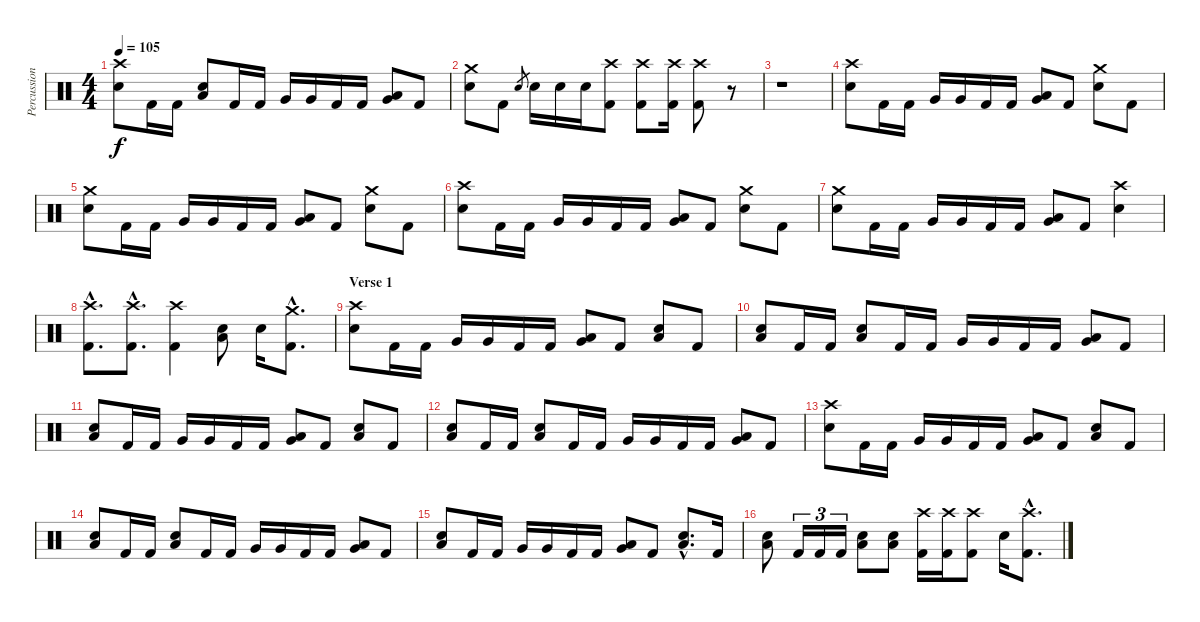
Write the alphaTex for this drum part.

\track ("Percussion" "Percussion") {instrument percussion}
\staff {score}
\articulation defaults
\ts (4 4)
\tempo 105
\clef neutral
\ks c
("Crash high (hit)" "Snare (hit) 2").8{dy f} "Kick (hit) 2".16 "Kick (hit) 2".16 ("Low Floor Tom (hit)" "Snare (hit) 2").8 "Kick (hit) 2".16 "Kick (hit) 2".16 "Very Low Tom (hit)".16 "Very Low Tom (hit)".16 "Kick (hit) 2".16 "Kick (hit) 2".16 ("Very Low Tom (hit)" "Low Floor Tom (hit)").8 "Kick (hit) 2".8 |
("Crash medium (hit)" "Snare (hit) 2").8 "Kick (hit) 2".8 "Snare (hit) 2".8{gr} "Snare (hit) 2".16 "Snare (hit) 2".16 "Snare (hit) 2".16 ("Crash high (hit)" "Kick (hit) 2").8 ("Crash high (hit)" "Kick (hit) 2").8 ("Crash high (hit)" "Kick (hit) 2").16 ("Crash high (hit)" "Kick (hit) 2").8 r.8 |
r.1 |
("Crash high (hit)" "Snare (hit) 2").8 "Kick (hit) 2".16 "Kick (hit) 2".16 "Very Low Tom (hit)".16 "Very Low Tom (hit)".16 "Kick (hit) 2".16 "Kick (hit) 2".16 ("Very Low Tom (hit)" "Low Floor Tom (hit)").8 "Kick (hit) 2".8 ("Crash medium (hit)" "Snare (hit) 2").8 "Kick (hit) 2".8 |
("Crash medium (hit)" "Snare (hit) 2").8 "Kick (hit) 2".16 "Kick (hit) 2".16 "Very Low Tom (hit)".16 "Very Low Tom (hit)".16 "Kick (hit) 2".16 "Kick (hit) 2".16 ("Very Low Tom (hit)" "Low Floor Tom (hit)").8 "Kick (hit) 2".8 ("Crash medium (hit)" "Snare (hit) 2").8 "Kick (hit) 2".8 |
("Crash high (hit)" "Snare (hit) 2").8 "Kick (hit) 2".16 "Kick (hit) 2".16 "Very Low Tom (hit)".16 "Very Low Tom (hit)".16 "Kick (hit) 2".16 "Kick (hit) 2".16 ("Very Low Tom (hit)" "Low Floor Tom (hit)").8 "Kick (hit) 2".8 ("Crash medium (hit)" "Snare (hit) 2").8 "Kick (hit) 2".8 |
("Crash medium (hit)" "Snare (hit) 2").8 "Kick (hit) 2".16 "Kick (hit) 2".16 "Very Low Tom (hit)".16 "Very Low Tom (hit)".16 "Kick (hit) 2".16 "Kick (hit) 2".16 ("Very Low Tom (hit)" "Low Floor Tom (hit)").8 "Kick (hit) 2".8 ("Crash high (hit)" "Snare (hit) 2").4 |
("Crash high (hit)"{hac} "Kick (hit) 2"{hac}).8{d} ("Crash high (hit)"{hac} "Kick (hit) 2"{hac}).8{d} ("Crash high (hit)" "Kick (hit) 2").4 ("Low Floor Tom (hit)" "Snare (hit) 2").8 "Snare (hit) 2".16 ("Crash medium (hit)"{hac} "Kick (hit) 2"{hac}).8{d} |
\section ("" "Verse 1")
("Crash high (hit)" "Snare (hit) 2").8 "Kick (hit) 2".16 "Kick (hit) 2".16 "Very Low Tom (hit)".16 "Very Low Tom (hit)".16 "Kick (hit) 2".16 "Kick (hit) 2".16 ("Very Low Tom (hit)" "Low Floor Tom (hit)").8 "Kick (hit) 2".8 ("Low Floor Tom (hit)" "Snare (hit) 2").8 "Kick (hit) 2".8 |
("Low Floor Tom (hit)" "Snare (hit) 2").8 "Kick (hit) 2".16 "Kick (hit) 2".16 ("Low Floor Tom (hit)" "Snare (hit) 2").8 "Kick (hit) 2".16 "Kick (hit) 2".16 "Very Low Tom (hit)".16 "Very Low Tom (hit)".16 "Kick (hit) 2".16 "Kick (hit) 2".16 ("Very Low Tom (hit)" "Low Floor Tom (hit)").8 "Kick (hit) 2".8 |
("Low Floor Tom (hit)" "Snare (hit) 2").8 "Kick (hit) 2".16 "Kick (hit) 2".16 "Very Low Tom (hit)".16 "Very Low Tom (hit)".16 "Kick (hit) 2".16 "Kick (hit) 2".16 ("Very Low Tom (hit)" "Low Floor Tom (hit)").8 "Kick (hit) 2".8 ("Low Floor Tom (hit)" "Snare (hit) 2").8 "Kick (hit) 2".8 |
("Low Floor Tom (hit)" "Snare (hit) 2").8 "Kick (hit) 2".16 "Kick (hit) 2".16 ("Low Floor Tom (hit)" "Snare (hit) 2").8 "Kick (hit) 2".16 "Kick (hit) 2".16 "Very Low Tom (hit)".16 "Very Low Tom (hit)".16 "Kick (hit) 2".16 "Kick (hit) 2".16 ("Very Low Tom (hit)" "Low Floor Tom (hit)").8 "Kick (hit) 2".8 |
("Crash high (hit)" "Snare (hit) 2").8 "Kick (hit) 2".16 "Kick (hit) 2".16 "Very Low Tom (hit)".16 "Very Low Tom (hit)".16 "Kick (hit) 2".16 "Kick (hit) 2".16 ("Very Low Tom (hit)" "Low Floor Tom (hit)").8 "Kick (hit) 2".8 ("Low Floor Tom (hit)" "Snare (hit) 2").8 "Kick (hit) 2".8 |
("Low Floor Tom (hit)" "Snare (hit) 2").8 "Kick (hit) 2".16 "Kick (hit) 2".16 ("Low Floor Tom (hit)" "Snare (hit) 2").8 "Kick (hit) 2".16 "Kick (hit) 2".16 "Very Low Tom (hit)".16 "Very Low Tom (hit)".16 "Kick (hit) 2".16 "Kick (hit) 2".16 ("Very Low Tom (hit)" "Low Floor Tom (hit)").8 "Kick (hit) 2".8 |
("Low Floor Tom (hit)" "Snare (hit) 2").8 "Kick (hit) 2".16 "Kick (hit) 2".16 "Very Low Tom (hit)".16 "Very Low Tom (hit)".16 "Kick (hit) 2".16 "Kick (hit) 2".16 ("Very Low Tom (hit)" "Low Floor Tom (hit)").8 "Kick (hit) 2".8 ("Low Floor Tom (hit)"{hac} "Snare (hit) 2"{hac}).8{d} "Kick (hit) 2".16 |
("Low Floor Tom (hit)" "Snare (hit) 2").8 "Kick (hit) 2".16{tu (3 2)} "Kick (hit) 2".16{tu (3 2)} "Kick (hit) 2".16{tu (3 2)} ("Low Floor Tom (hit)" "Snare (hit) 2").8 ("Low Floor Tom (hit)" "Snare (hit) 2").8 ("Crash high (hit)" "Kick (hit) 2").16 ("Crash high (hit)" "Kick (hit) 2").16 ("Crash high (hit)" "Kick (hit) 2").8 "Snare (hit) 2".16 ("Crash high (hit)"{hac} "Kick (hit) 2"{hac}).8{d}
